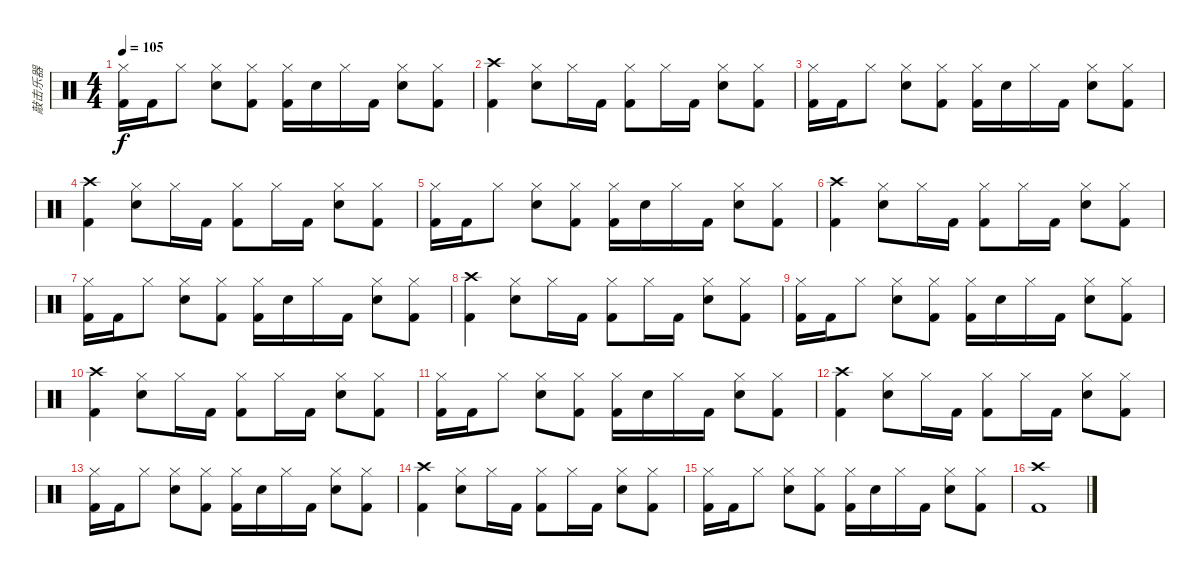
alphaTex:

\track ("敲击乐器" "敲击乐器") {instrument percussion}
\staff {score}
\articulation defaults
\ts (4 4)
\tempo 105
\clef neutral
\ks c
("Hi-Hat (closed)" "Kick (hit) 2").16{dy f} "Kick (hit) 2".16 "Hi-Hat (closed)".8 ("Hi-Hat (closed)" "Snare (hit) 2").8 ("Hi-Hat (closed)" "Kick (hit) 2").8 ("Hi-Hat (closed)" "Kick (hit) 2").16 "Snare (hit) 2".16 "Hi-Hat (closed)".16 "Kick (hit) 2".16 ("Hi-Hat (closed)" "Snare (hit) 2").8 ("Hi-Hat (closed)" "Kick (hit) 2").8 |
("Crash high (hit)" "Kick (hit) 2").4 ("Hi-Hat (closed)" "Snare (hit) 2").8 "Hi-Hat (closed)".16 "Kick (hit) 2".16 ("Hi-Hat (closed)" "Kick (hit) 2").8 "Hi-Hat (closed)".16 "Kick (hit) 2".16 ("Hi-Hat (closed)" "Snare (hit) 2").8 ("Hi-Hat (closed)" "Kick (hit) 2").8 |
("Hi-Hat (closed)" "Kick (hit) 2").16 "Kick (hit) 2".16 "Hi-Hat (closed)".8 ("Hi-Hat (closed)" "Snare (hit) 2").8 ("Hi-Hat (closed)" "Kick (hit) 2").8 ("Hi-Hat (closed)" "Kick (hit) 2").16 "Snare (hit) 2".16 "Hi-Hat (closed)".16 "Kick (hit) 2".16 ("Hi-Hat (closed)" "Snare (hit) 2").8 ("Hi-Hat (closed)" "Kick (hit) 2").8 |
("Crash high (hit)" "Kick (hit) 2").4 ("Hi-Hat (closed)" "Snare (hit) 2").8 "Hi-Hat (closed)".16 "Kick (hit) 2".16 ("Hi-Hat (closed)" "Kick (hit) 2").8 "Hi-Hat (closed)".16 "Kick (hit) 2".16 ("Hi-Hat (closed)" "Snare (hit) 2").8 ("Hi-Hat (closed)" "Kick (hit) 2").8 |
("Hi-Hat (closed)" "Kick (hit) 2").16 "Kick (hit) 2".16 "Hi-Hat (closed)".8 ("Hi-Hat (closed)" "Snare (hit) 2").8 ("Hi-Hat (closed)" "Kick (hit) 2").8 ("Hi-Hat (closed)" "Kick (hit) 2").16 "Snare (hit) 2".16 "Hi-Hat (closed)".16 "Kick (hit) 2".16 ("Hi-Hat (closed)" "Snare (hit) 2").8 ("Hi-Hat (closed)" "Kick (hit) 2").8 |
("Crash high (hit)" "Kick (hit) 2").4 ("Hi-Hat (closed)" "Snare (hit) 2").8 "Hi-Hat (closed)".16 "Kick (hit) 2".16 ("Hi-Hat (closed)" "Kick (hit) 2").8 "Hi-Hat (closed)".16 "Kick (hit) 2".16 ("Hi-Hat (closed)" "Snare (hit) 2").8 ("Hi-Hat (closed)" "Kick (hit) 2").8 |
("Hi-Hat (closed)" "Kick (hit) 2").16 "Kick (hit) 2".16 "Hi-Hat (closed)".8 ("Hi-Hat (closed)" "Snare (hit) 2").8 ("Hi-Hat (closed)" "Kick (hit) 2").8 ("Hi-Hat (closed)" "Kick (hit) 2").16 "Snare (hit) 2".16 "Hi-Hat (closed)".16 "Kick (hit) 2".16 ("Hi-Hat (closed)" "Snare (hit) 2").8 ("Hi-Hat (closed)" "Kick (hit) 2").8 |
("Crash high (hit)" "Kick (hit) 2").4 ("Hi-Hat (closed)" "Snare (hit) 2").8 "Hi-Hat (closed)".16 "Kick (hit) 2".16 ("Hi-Hat (closed)" "Kick (hit) 2").8 "Hi-Hat (closed)".16 "Kick (hit) 2".16 ("Hi-Hat (closed)" "Snare (hit) 2").8 ("Hi-Hat (closed)" "Kick (hit) 2").8 |
("Hi-Hat (closed)" "Kick (hit) 2").16 "Kick (hit) 2".16 "Hi-Hat (closed)".8 ("Hi-Hat (closed)" "Snare (hit) 2").8 ("Hi-Hat (closed)" "Kick (hit) 2").8 ("Hi-Hat (closed)" "Kick (hit) 2").16 "Snare (hit) 2".16 "Hi-Hat (closed)".16 "Kick (hit) 2".16 ("Hi-Hat (closed)" "Snare (hit) 2").8 ("Hi-Hat (closed)" "Kick (hit) 2").8 |
("Crash high (hit)" "Kick (hit) 2").4 ("Hi-Hat (closed)" "Snare (hit) 2").8 "Hi-Hat (closed)".16 "Kick (hit) 2".16 ("Hi-Hat (closed)" "Kick (hit) 2").8 "Hi-Hat (closed)".16 "Kick (hit) 2".16 ("Hi-Hat (closed)" "Snare (hit) 2").8 ("Hi-Hat (closed)" "Kick (hit) 2").8 |
("Hi-Hat (closed)" "Kick (hit) 2").16 "Kick (hit) 2".16 "Hi-Hat (closed)".8 ("Hi-Hat (closed)" "Snare (hit) 2").8 ("Hi-Hat (closed)" "Kick (hit) 2").8 ("Hi-Hat (closed)" "Kick (hit) 2").16 "Snare (hit) 2".16 "Hi-Hat (closed)".16 "Kick (hit) 2".16 ("Hi-Hat (closed)" "Snare (hit) 2").8 ("Hi-Hat (closed)" "Kick (hit) 2").8 |
("Crash high (hit)" "Kick (hit) 2").4 ("Hi-Hat (closed)" "Snare (hit) 2").8 "Hi-Hat (closed)".16 "Kick (hit) 2".16 ("Hi-Hat (closed)" "Kick (hit) 2").8 "Hi-Hat (closed)".16 "Kick (hit) 2".16 ("Hi-Hat (closed)" "Snare (hit) 2").8 ("Hi-Hat (closed)" "Kick (hit) 2").8 |
("Hi-Hat (closed)" "Kick (hit) 2").16 "Kick (hit) 2".16 "Hi-Hat (closed)".8 ("Hi-Hat (closed)" "Snare (hit) 2").8 ("Hi-Hat (closed)" "Kick (hit) 2").8 ("Hi-Hat (closed)" "Kick (hit) 2").16 "Snare (hit) 2".16 "Hi-Hat (closed)".16 "Kick (hit) 2".16 ("Hi-Hat (closed)" "Snare (hit) 2").8 ("Hi-Hat (closed)" "Kick (hit) 2").8 |
("Crash high (hit)" "Kick (hit) 2").4 ("Hi-Hat (closed)" "Snare (hit) 2").8 "Hi-Hat (closed)".16 "Kick (hit) 2".16 ("Hi-Hat (closed)" "Kick (hit) 2").8 "Hi-Hat (closed)".16 "Kick (hit) 2".16 ("Hi-Hat (closed)" "Snare (hit) 2").8 ("Hi-Hat (closed)" "Kick (hit) 2").8 |
("Hi-Hat (closed)" "Kick (hit) 2").16 "Kick (hit) 2".16 "Hi-Hat (closed)".8 ("Hi-Hat (closed)" "Snare (hit) 2").8 ("Hi-Hat (closed)" "Kick (hit) 2").8 ("Hi-Hat (closed)" "Kick (hit) 2").16 "Snare (hit) 2".16 "Hi-Hat (closed)".16 "Kick (hit) 2".16 ("Hi-Hat (closed)" "Snare (hit) 2").8 ("Hi-Hat (closed)" "Kick (hit) 2").8 |
("Crash high (hit)" "Kick (hit) 2").1
